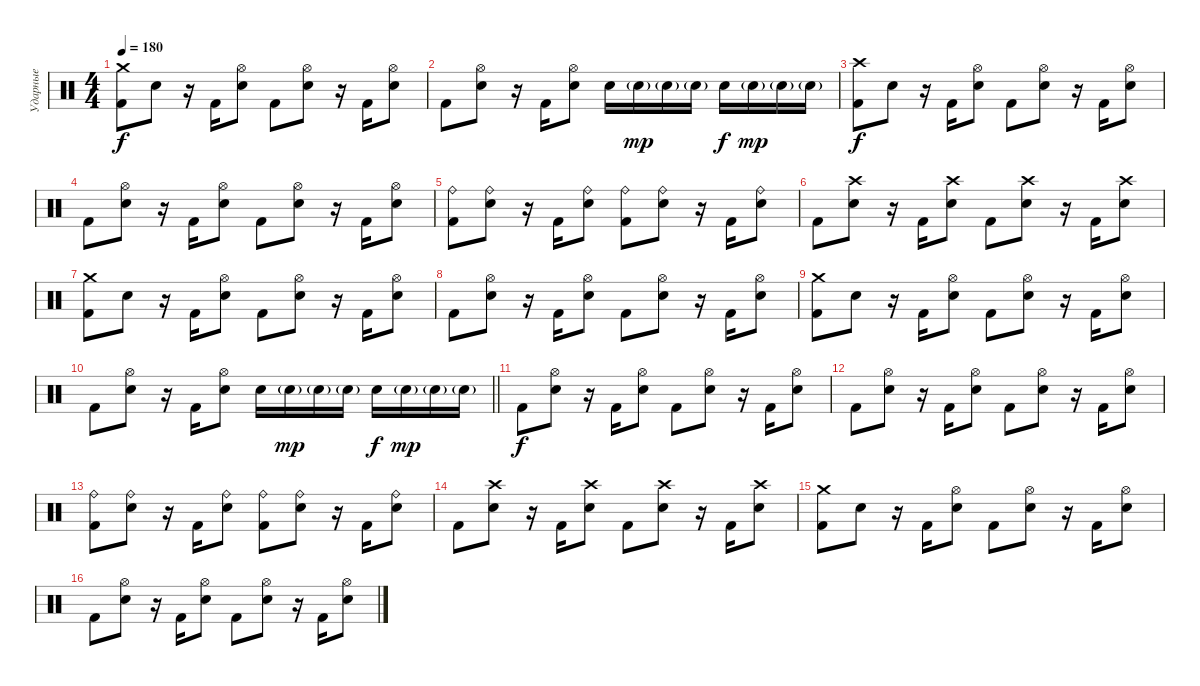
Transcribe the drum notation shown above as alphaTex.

\track ("Ударные" "Ударные") {instrument percussion}
\staff {score}
\articulation defaults
\ts (4 4)
\tempo 180
\clef neutral
\ks c
("Crash medium (hit)" "Kick (hit) 2").8{dy f} "Electric Snare (hit)".8 r.16 "Kick (hit) 2".16 ("Hi-Hat (open)" "Electric Snare (hit)").8 "Kick (hit) 2".8 ("Hi-Hat (open)" "Electric Snare (hit)").8 r.16 "Kick (hit) 2".16 ("Hi-Hat (open)" "Electric Snare (hit)").8 |
"Kick (hit) 2".8 ("Hi-Hat (open)" "Electric Snare (hit)").8 r.16 "Kick (hit) 2".16 ("Hi-Hat (open)" "Electric Snare (hit)").8 "Electric Snare (hit)".16 "Electric Snare (hit)"{g}.16{dy mp} "Electric Snare (hit)"{g}.16 "Electric Snare (hit)"{g}.16 "Electric Snare (hit)".16{dy f} "Electric Snare (hit)"{g}.16{dy mp} "Electric Snare (hit)"{g}.16 "Electric Snare (hit)"{g}.16 |
("Crash high (hit)" "Kick (hit) 2").8{dy f} "Electric Snare (hit)".8 r.16 "Kick (hit) 2".16 ("Hi-Hat (open)" "Electric Snare (hit)").8 "Kick (hit) 2".8 ("Hi-Hat (open)" "Electric Snare (hit)").8 r.16 "Kick (hit) 2".16 ("Hi-Hat (open)" "Electric Snare (hit)").8 |
"Kick (hit) 2".8 ("Hi-Hat (open)" "Electric Snare (hit)").8 r.16 "Kick (hit) 2".16 ("Hi-Hat (open)" "Electric Snare (hit)").8 "Kick (hit) 2".8 ("Hi-Hat (open)" "Electric Snare (hit)").8 r.16 "Kick (hit) 2".16 ("Hi-Hat (open)" "Electric Snare (hit)").8 |
("Ride (bell)" "Kick (hit) 2").8 ("Ride (bell)" "Electric Snare (hit)").8 r.16 "Kick (hit) 2".16 ("Ride (bell)" "Electric Snare (hit)").8 ("Ride (bell)" "Kick (hit) 2").8 ("Ride (bell)" "Electric Snare (hit)").8 r.16 "Kick (hit) 2".16 ("Ride (bell)" "Electric Snare (hit)").8 |
"Kick (hit) 2".8 ("Crash high (hit)" "Electric Snare (hit)").8 r.16 "Kick (hit) 2".16 ("Crash high (hit)" "Electric Snare (hit)").8 "Kick (hit) 2".8 ("Crash high (hit)" "Electric Snare (hit)").8 r.16 "Kick (hit) 2".16 ("Crash high (hit)" "Electric Snare (hit)").8 |
("Crash medium (hit)" "Kick (hit) 2").8 "Electric Snare (hit)".8 r.16 "Kick (hit) 2".16 ("Hi-Hat (open)" "Electric Snare (hit)").8 "Kick (hit) 2".8 ("Hi-Hat (open)" "Electric Snare (hit)").8 r.16 "Kick (hit) 2".16 ("Hi-Hat (open)" "Electric Snare (hit)").8 |
"Kick (hit) 2".8 ("Hi-Hat (open)" "Electric Snare (hit)").8 r.16 "Kick (hit) 2".16 ("Hi-Hat (open)" "Electric Snare (hit)").8 "Kick (hit) 2".8 ("Hi-Hat (open)" "Electric Snare (hit)").8 r.16 "Kick (hit) 2".16 ("Hi-Hat (open)" "Electric Snare (hit)").8 |
("Crash medium (hit)" "Kick (hit) 2").8 "Electric Snare (hit)".8 r.16 "Kick (hit) 2".16 ("Hi-Hat (open)" "Electric Snare (hit)").8 "Kick (hit) 2".8 ("Hi-Hat (open)" "Electric Snare (hit)").8 r.16 "Kick (hit) 2".16 ("Hi-Hat (open)" "Electric Snare (hit)").8 |
\barLineRight lightlight "Kick (hit) 2".8
("Hi-Hat (open)" "Electric Snare (hit)").8 r.16 "Kick (hit) 2".16 ("Hi-Hat (open)" "Electric Snare (hit)").8 "Electric Snare (hit)".16 "Electric Snare (hit)"{g}.16{dy mp} "Electric Snare (hit)"{g}.16 "Electric Snare (hit)"{g}.16 "Electric Snare (hit)".16{dy f} "Electric Snare (hit)"{g}.16{dy mp} "Electric Snare (hit)"{g}.16 "Electric Snare (hit)"{g}.16 |
\section ("" "")
"Kick (hit) 2".8{dy f} ("Hi-Hat (open)" "Electric Snare (hit)").8 r.16 "Kick (hit) 2".16 ("Hi-Hat (open)" "Electric Snare (hit)").8 "Kick (hit) 2".8 ("Hi-Hat (open)" "Electric Snare (hit)").8 r.16 "Kick (hit) 2".16 ("Hi-Hat (open)" "Electric Snare (hit)").8 |
"Kick (hit) 2".8 ("Hi-Hat (open)" "Electric Snare (hit)").8 r.16 "Kick (hit) 2".16 ("Hi-Hat (open)" "Electric Snare (hit)").8 "Kick (hit) 2".8 ("Hi-Hat (open)" "Electric Snare (hit)").8 r.16 "Kick (hit) 2".16 ("Hi-Hat (open)" "Electric Snare (hit)").8 |
("Ride (bell)" "Kick (hit) 2").8 ("Ride (bell)" "Electric Snare (hit)").8 r.16 "Kick (hit) 2".16 ("Ride (bell)" "Electric Snare (hit)").8 ("Ride (bell)" "Kick (hit) 2").8 ("Ride (bell)" "Electric Snare (hit)").8 r.16 "Kick (hit) 2".16 ("Ride (bell)" "Electric Snare (hit)").8 |
"Kick (hit) 2".8 ("Crash high (hit)" "Electric Snare (hit)").8 r.16 "Kick (hit) 2".16 ("Crash high (hit)" "Electric Snare (hit)").8 "Kick (hit) 2".8 ("Crash high (hit)" "Electric Snare (hit)").8 r.16 "Kick (hit) 2".16 ("Crash high (hit)" "Electric Snare (hit)").8 |
("Crash medium (hit)" "Kick (hit) 2").8 "Electric Snare (hit)".8 r.16 "Kick (hit) 2".16 ("Hi-Hat (open)" "Electric Snare (hit)").8 "Kick (hit) 2".8 ("Hi-Hat (open)" "Electric Snare (hit)").8 r.16 "Kick (hit) 2".16 ("Hi-Hat (open)" "Electric Snare (hit)").8 |
"Kick (hit) 2".8 ("Hi-Hat (open)" "Electric Snare (hit)").8 r.16 "Kick (hit) 2".16 ("Hi-Hat (open)" "Electric Snare (hit)").8 "Kick (hit) 2".8 ("Hi-Hat (open)" "Electric Snare (hit)").8 r.16 "Kick (hit) 2".16 ("Hi-Hat (open)" "Electric Snare (hit)").8
